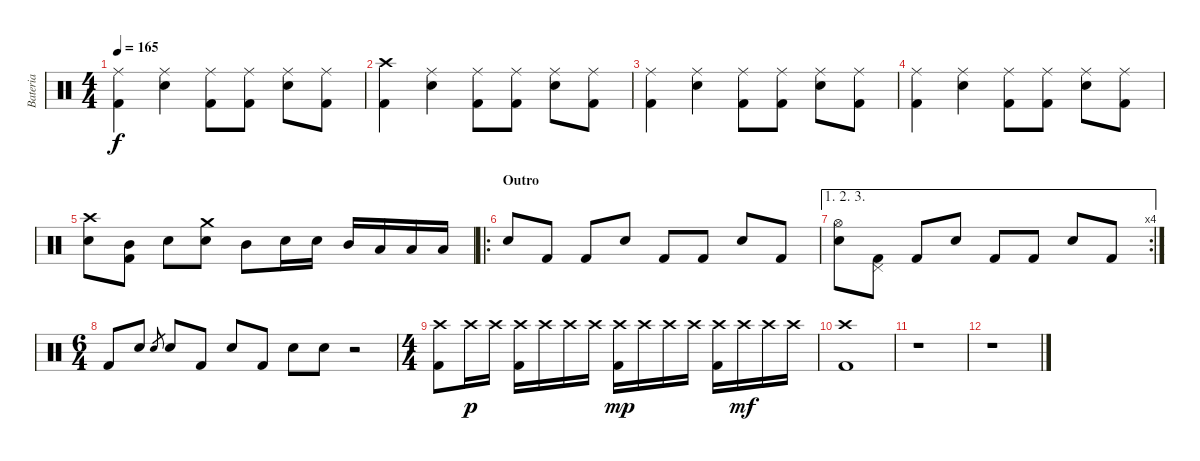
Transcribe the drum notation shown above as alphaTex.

\track ("Bateria" "Bateria") {instrument percussion}
\staff {score}
\articulation defaults
\ts (4 4)
\tempo 165
\clef neutral
\ks c
("Ride (middle)" "Kick (hit) 2").4{dy f} ("Ride (middle)" "Electric Snare (hit)").4 ("Ride (middle)" "Kick (hit) 2").8 ("Ride (middle)" "Kick (hit) 2").8 ("Ride (middle)" "Electric Snare (hit)").8 ("Ride (middle)" "Kick (hit) 2").8 |
("Crash high (hit)" "Kick (hit) 2").4 ("Ride (middle)" "Electric Snare (hit)").4 ("Ride (middle)" "Kick (hit) 2").8 ("Ride (middle)" "Kick (hit) 2").8 ("Ride (middle)" "Electric Snare (hit)").8 ("Ride (middle)" "Kick (hit) 2").8 |
("Ride (middle)" "Kick (hit) 2").4 ("Ride (middle)" "Electric Snare (hit)").4 ("Ride (middle)" "Kick (hit) 2").8 ("Ride (middle)" "Kick (hit) 2").8 ("Ride (middle)" "Electric Snare (hit)").8 ("Ride (middle)" "Kick (hit) 2").8 |
("Ride (middle)" "Kick (hit) 2").4 ("Ride (middle)" "Electric Snare (hit)").4 ("Ride (middle)" "Kick (hit) 2").8 ("Ride (middle)" "Kick (hit) 2").8 ("Ride (middle)" "Electric Snare (hit)").8 ("Ride (middle)" "Kick (hit) 2").8 |
("Crash high (hit)" "Electric Snare (hit)").8 ("Mid Tom (hit)" "Kick (hit) 2").8 "Electric Snare (hit)".8 ("Crash medium (hit)" "Electric Snare (hit)").8 "Mid Tom (hit)".8 "Electric Snare (hit)".16 "Electric Snare (hit)".16 "Mid Tom (hit)".16 "Low Tom (hit)".16 "Low Tom (hit)".16 "Low Floor Tom (hit)".16 |
\ro
\section ("" "Outro")
"Electric Snare (hit)".8 "Kick (hit) 2".8 "Kick (hit) 2".8 "Electric Snare (hit)".8 "Kick (hit) 2".8 "Kick (hit) 2".8 "Electric Snare (hit)".8 "Kick (hit) 2".8 |
\ae (1 2 3)
\rc 4
("Hi-Hat (open)" "Electric Snare (hit)").8 ("Pedal Hi-Hat (hit)" "Kick (hit) 2").8 "Kick (hit) 2".8 "Electric Snare (hit)".8 "Kick (hit) 2".8 "Kick (hit) 2".8 "Electric Snare (hit)".8 "Kick (hit) 2".8 |
\ts (6 4)
"Kick (hit) 2".8 "Electric Snare (hit)".8 "Electric Snare (hit)".8{gr} "Electric Snare (hit)".8 "Kick (hit) 2".8 "Electric Snare (hit)".8 "Kick (hit) 2".8 "Electric Snare (hit)".8 "Electric Snare (hit)".8 r.2 |
\ts (4 4)
("Crash high (hit)" "Kick (hit) 2").8 "Crash high (hit)".16{dy p} "Crash high (hit)".16 ("Crash high (hit)" "Kick (hit) 2").16 "Crash high (hit)".16 "Crash high (hit)".16 "Crash high (hit)".16 ("Crash high (hit)" "Kick (hit) 2").16{dy mp} "Crash high (hit)".16 "Crash high (hit)".16 "Crash high (hit)".16 ("Crash high (hit)" "Kick (hit) 2").16 "Crash high (hit)".16{dy mf} "Crash high (hit)".16 "Crash high (hit)".16 |
("Crash high (hit)" "Kick (hit) 2").1 |
r.1 |
r.1
